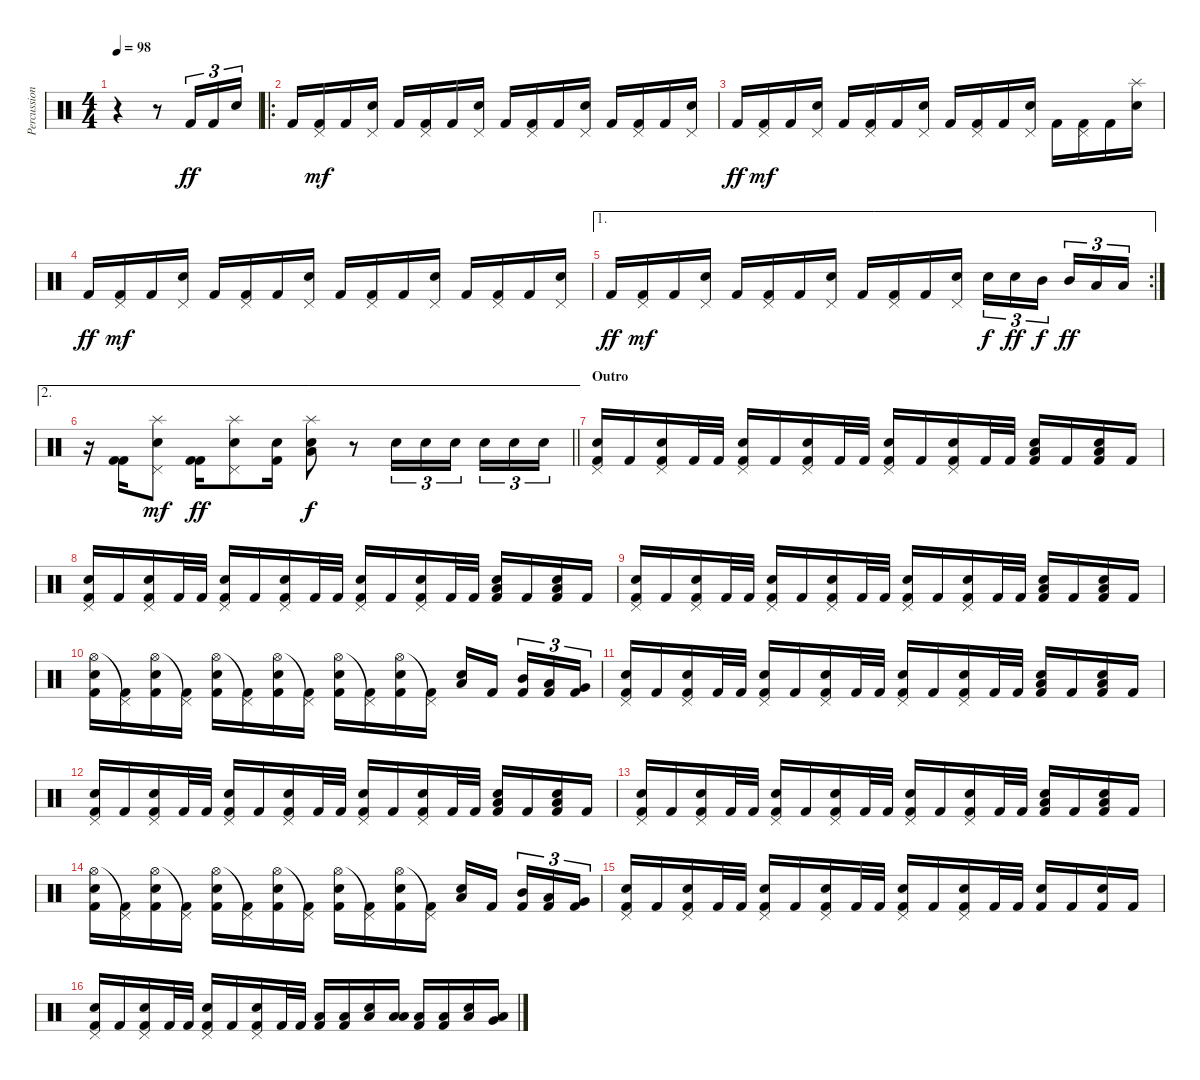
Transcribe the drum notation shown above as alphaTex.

\track ("Percussion" "Percussion") {instrument percussion}
\staff {score}
\articulation defaults
\ts (4 4)
\tempo 98
\clef neutral
\ks c
r.4{dy f} r.8 "Kick (hit) 2".16{tu (3 2) dy ff} "Kick (hit) 2".16{tu (3 2)} "Snare (hit) 2".16{tu (3 2)} |
\ro "Kick (hit) 2".16
("Pedal Hi-Hat (hit)" "Kick (hit) 2").16{dy mf} "Kick (hit) 2".16 ("Pedal Hi-Hat (hit)" "Snare (hit) 2").16 "Kick (hit) 2".16 ("Pedal Hi-Hat (hit)" "Kick (hit) 2").16 "Kick (hit) 2".16 ("Pedal Hi-Hat (hit)" "Snare (hit) 2").16 "Kick (hit) 2".16 ("Pedal Hi-Hat (hit)" "Kick (hit) 2").16 "Kick (hit) 2".16 ("Pedal Hi-Hat (hit)" "Snare (hit) 2").16 "Kick (hit) 2".16 ("Pedal Hi-Hat (hit)" "Kick (hit) 2").16 "Kick (hit) 2".16 ("Pedal Hi-Hat (hit)" "Snare (hit) 2").16 |
"Kick (hit) 2".16{dy ff} ("Pedal Hi-Hat (hit)" "Kick (hit) 2").16{dy mf} "Kick (hit) 2".16 ("Pedal Hi-Hat (hit)" "Snare (hit) 2").16 "Kick (hit) 2".16 ("Pedal Hi-Hat (hit)" "Kick (hit) 2").16 "Kick (hit) 2".16 ("Pedal Hi-Hat (hit)" "Snare (hit) 2").16 "Kick (hit) 2".16 ("Pedal Hi-Hat (hit)" "Kick (hit) 2").16 "Kick (hit) 2".16 ("Pedal Hi-Hat (hit)" "Snare (hit) 2").16 "Kick (hit) 2".16 ("Pedal Hi-Hat (hit)" "Kick (hit) 2").16 "Kick (hit) 2".16 ("Splash (hit)" "Snare (hit) 2").16 |
"Kick (hit) 2".16{dy ff} ("Pedal Hi-Hat (hit)" "Kick (hit) 2").16{dy mf} "Kick (hit) 2".16 ("Pedal Hi-Hat (hit)" "Snare (hit) 2").16 "Kick (hit) 2".16 ("Pedal Hi-Hat (hit)" "Kick (hit) 2").16 "Kick (hit) 2".16 ("Pedal Hi-Hat (hit)" "Snare (hit) 2").16 "Kick (hit) 2".16 ("Pedal Hi-Hat (hit)" "Kick (hit) 2").16 "Kick (hit) 2".16 ("Pedal Hi-Hat (hit)" "Snare (hit) 2").16 "Kick (hit) 2".16 ("Pedal Hi-Hat (hit)" "Kick (hit) 2").16 "Kick (hit) 2".16 ("Pedal Hi-Hat (hit)" "Snare (hit) 2").16 |
\ae 1
\rc 2 "Kick (hit) 2".16{dy ff}
("Pedal Hi-Hat (hit)" "Kick (hit) 2").16{dy mf} "Kick (hit) 2".16 ("Pedal Hi-Hat (hit)" "Snare (hit) 2").16 "Kick (hit) 2".16 ("Pedal Hi-Hat (hit)" "Kick (hit) 2").16 "Kick (hit) 2".16 ("Pedal Hi-Hat (hit)" "Snare (hit) 2").16 "Kick (hit) 2".16 ("Pedal Hi-Hat (hit)" "Kick (hit) 2").16 "Kick (hit) 2".16 ("Pedal Hi-Hat (hit)" "Snare (hit) 2").16 "Snare (hit) 2".16{tu (3 2) dy f} "Snare (hit) 2".16{tu (3 2) dy ff} "Mid Tom (hit)".16{tu (3 2) dy f beam splitsecondary} "Mid Tom (hit)".16{tu (3 2) dy ff} "Low Tom (hit)".16{tu (3 2)} "Low Tom (hit)".16{tu (3 2)} |
\ae 2
\barLineRight lightlight
r.16 ("Kick (hit) 2" "Kick (hit) 2").16 ("Splash (hit)" "Pedal Hi-Hat (hit)" "Snare (hit) 2").8{dy mf} ("Kick (hit) 2" "Kick (hit) 2").16{dy ff} ("Splash (hit)" "Pedal Hi-Hat (hit)" "Snare (hit) 2").8 ("Kick (hit) 2" "Snare (hit) 2").16 ("Splash (hit)" "Low Floor Tom (hit)" "Snare (hit) 2").8{dy f} r.8 "Snare (hit) 2".16{tu (3 2)} "Snare (hit) 2".16{tu (3 2)} "Snare (hit) 2".16{tu (3 2) beam splitsecondary} "Snare (hit) 2".16{tu (3 2)} "Snare (hit) 2".16{tu (3 2)} "Snare (hit) 2".16{tu (3 2)} |
\section ("" "Outro")
("Pedal Hi-Hat (hit)" "Snare (hit) 2" "Kick (hit) 2").16 "Kick (hit) 2".16 ("Pedal Hi-Hat (hit)" "Snare (hit) 2" "Kick (hit) 2").16 "Kick (hit) 2".32 "Kick (hit) 2".32 ("Pedal Hi-Hat (hit)" "Snare (hit) 2" "Kick (hit) 2").16 "Kick (hit) 2".16 ("Pedal Hi-Hat (hit)" "Snare (hit) 2" "Kick (hit) 2").16 "Kick (hit) 2".32 "Kick (hit) 2".32 ("Pedal Hi-Hat (hit)" "Snare (hit) 2" "Kick (hit) 2").16 "Kick (hit) 2".16 ("Pedal Hi-Hat (hit)" "Snare (hit) 2" "Kick (hit) 2").16 "Kick (hit) 2".32 "Kick (hit) 2".32 ("Low Tom (hit)" "Snare (hit) 2" "Kick (hit) 2").16 "Kick (hit) 2".16 ("Low Tom (hit)" "Snare (hit) 2" "Kick (hit) 2").16 "Kick (hit) 2".16 |
("Pedal Hi-Hat (hit)" "Snare (hit) 2" "Kick (hit) 2").16 "Kick (hit) 2".16 ("Pedal Hi-Hat (hit)" "Snare (hit) 2" "Kick (hit) 2").16 "Kick (hit) 2".32 "Kick (hit) 2".32 ("Pedal Hi-Hat (hit)" "Snare (hit) 2" "Kick (hit) 2").16 "Kick (hit) 2".16 ("Pedal Hi-Hat (hit)" "Snare (hit) 2" "Kick (hit) 2").16 "Kick (hit) 2".32 "Kick (hit) 2".32 ("Pedal Hi-Hat (hit)" "Snare (hit) 2" "Kick (hit) 2").16 "Kick (hit) 2".16 ("Pedal Hi-Hat (hit)" "Snare (hit) 2" "Kick (hit) 2").16 "Kick (hit) 2".32 "Kick (hit) 2".32 ("Low Tom (hit)" "Snare (hit) 2" "Kick (hit) 2").16 "Kick (hit) 2".16 ("Low Tom (hit)" "Snare (hit) 2" "Kick (hit) 2").16 "Kick (hit) 2".16 |
("Pedal Hi-Hat (hit)" "Snare (hit) 2" "Kick (hit) 2").16 "Kick (hit) 2".16 ("Pedal Hi-Hat (hit)" "Snare (hit) 2" "Kick (hit) 2").16 "Kick (hit) 2".32 "Kick (hit) 2".32 ("Pedal Hi-Hat (hit)" "Snare (hit) 2" "Kick (hit) 2").16 "Kick (hit) 2".16 ("Pedal Hi-Hat (hit)" "Snare (hit) 2" "Kick (hit) 2").16 "Kick (hit) 2".32 "Kick (hit) 2".32 ("Pedal Hi-Hat (hit)" "Snare (hit) 2" "Kick (hit) 2").16 "Kick (hit) 2".16 ("Pedal Hi-Hat (hit)" "Snare (hit) 2" "Kick (hit) 2").16 "Kick (hit) 2".32 "Kick (hit) 2".32 ("Low Tom (hit)" "Snare (hit) 2" "Kick (hit) 2").16 "Kick (hit) 2".16 ("Low Tom (hit)" "Snare (hit) 2" "Kick (hit) 2").16 "Kick (hit) 2".16 |
("Hi-Hat (open)" "Snare (hit) 2" "Kick (hit) 2").16 ("Pedal Hi-Hat (hit)"{t} "Kick (hit) 2").16 ("Hi-Hat (open)" "Snare (hit) 2" "Kick (hit) 2").16 ("Pedal Hi-Hat (hit)"{t} "Kick (hit) 2").16 ("Hi-Hat (open)" "Snare (hit) 2" "Kick (hit) 2").16 ("Pedal Hi-Hat (hit)"{t} "Kick (hit) 2").16 ("Hi-Hat (open)" "Snare (hit) 2" "Kick (hit) 2").16 ("Pedal Hi-Hat (hit)"{t} "Kick (hit) 2").16 ("Hi-Hat (open)" "Snare (hit) 2" "Kick (hit) 2").16 ("Pedal Hi-Hat (hit)"{t} "Kick (hit) 2").16 ("Hi-Hat (open)" "Snare (hit) 2" "Kick (hit) 2").16 ("Pedal Hi-Hat (hit)"{t} "Kick (hit) 2").16 ("Low Floor Tom (hit)" "Snare (hit) 2").16 "Kick (hit) 2".16{beam splitsecondary} ("Mid Tom (hit)" "Kick (hit) 2").16{tu (3 2)} ("Low Tom (hit)" "Kick (hit) 2").16{tu (3 2)} ("Very Low Tom (hit)" "Kick (hit) 2").16{tu (3 2)} |
("Pedal Hi-Hat (hit)" "Snare (hit) 2" "Kick (hit) 2").16 "Kick (hit) 2".16 ("Pedal Hi-Hat (hit)" "Snare (hit) 2" "Kick (hit) 2").16 "Kick (hit) 2".32 "Kick (hit) 2".32 ("Pedal Hi-Hat (hit)" "Snare (hit) 2" "Kick (hit) 2").16 "Kick (hit) 2".16 ("Pedal Hi-Hat (hit)" "Snare (hit) 2" "Kick (hit) 2").16 "Kick (hit) 2".32 "Kick (hit) 2".32 ("Pedal Hi-Hat (hit)" "Snare (hit) 2" "Kick (hit) 2").16 "Kick (hit) 2".16 ("Pedal Hi-Hat (hit)" "Snare (hit) 2" "Kick (hit) 2").16 "Kick (hit) 2".32 "Kick (hit) 2".32 ("Low Tom (hit)" "Snare (hit) 2" "Kick (hit) 2").16 "Kick (hit) 2".16 ("Low Tom (hit)" "Snare (hit) 2" "Kick (hit) 2").16 "Kick (hit) 2".16 |
("Pedal Hi-Hat (hit)" "Snare (hit) 2" "Kick (hit) 2").16 "Kick (hit) 2".16 ("Pedal Hi-Hat (hit)" "Snare (hit) 2" "Kick (hit) 2").16 "Kick (hit) 2".32 "Kick (hit) 2".32 ("Pedal Hi-Hat (hit)" "Snare (hit) 2" "Kick (hit) 2").16 "Kick (hit) 2".16 ("Pedal Hi-Hat (hit)" "Snare (hit) 2" "Kick (hit) 2").16 "Kick (hit) 2".32 "Kick (hit) 2".32 ("Pedal Hi-Hat (hit)" "Snare (hit) 2" "Kick (hit) 2").16 "Kick (hit) 2".16 ("Pedal Hi-Hat (hit)" "Snare (hit) 2" "Kick (hit) 2").16 "Kick (hit) 2".32 "Kick (hit) 2".32 ("Low Tom (hit)" "Snare (hit) 2" "Kick (hit) 2").16 "Kick (hit) 2".16 ("Low Tom (hit)" "Snare (hit) 2" "Kick (hit) 2").16 "Kick (hit) 2".16 |
("Pedal Hi-Hat (hit)" "Snare (hit) 2" "Kick (hit) 2").16 "Kick (hit) 2".16 ("Pedal Hi-Hat (hit)" "Snare (hit) 2" "Kick (hit) 2").16 "Kick (hit) 2".32 "Kick (hit) 2".32 ("Pedal Hi-Hat (hit)" "Snare (hit) 2" "Kick (hit) 2").16 "Kick (hit) 2".16 ("Pedal Hi-Hat (hit)" "Snare (hit) 2" "Kick (hit) 2").16 "Kick (hit) 2".32 "Kick (hit) 2".32 ("Pedal Hi-Hat (hit)" "Snare (hit) 2" "Kick (hit) 2").16 "Kick (hit) 2".16 ("Pedal Hi-Hat (hit)" "Snare (hit) 2" "Kick (hit) 2").16 "Kick (hit) 2".32 "Kick (hit) 2".32 ("Low Tom (hit)" "Snare (hit) 2" "Kick (hit) 2").16 "Kick (hit) 2".16 ("Low Tom (hit)" "Snare (hit) 2" "Kick (hit) 2").16 "Kick (hit) 2".16 |
("Hi-Hat (open)" "Snare (hit) 2" "Kick (hit) 2").16 ("Pedal Hi-Hat (hit)"{t} "Kick (hit) 2").16 ("Hi-Hat (open)" "Snare (hit) 2" "Kick (hit) 2").16 ("Pedal Hi-Hat (hit)"{t} "Kick (hit) 2").16 ("Hi-Hat (open)" "Snare (hit) 2" "Kick (hit) 2").16 ("Pedal Hi-Hat (hit)"{t} "Kick (hit) 2").16 ("Hi-Hat (open)" "Snare (hit) 2" "Kick (hit) 2").16 ("Pedal Hi-Hat (hit)"{t} "Kick (hit) 2").16 ("Hi-Hat (open)" "Snare (hit) 2" "Kick (hit) 2").16 ("Pedal Hi-Hat (hit)"{t} "Kick (hit) 2").16 ("Hi-Hat (open)" "Snare (hit) 2" "Kick (hit) 2").16 ("Pedal Hi-Hat (hit)"{t} "Kick (hit) 2").16 ("Low Floor Tom (hit)" "Snare (hit) 2").16 "Kick (hit) 2".16{beam splitsecondary} ("Mid Tom (hit)" "Kick (hit) 2").16{tu (3 2)} ("Low Tom (hit)" "Kick (hit) 2").16{tu (3 2)} ("Very Low Tom (hit)" "Kick (hit) 2").16{tu (3 2)} |
("Pedal Hi-Hat (hit)" "Snare (hit) 2" "Kick (hit) 2").16 "Kick (hit) 2".16 ("Pedal Hi-Hat (hit)" "Snare (hit) 2" "Kick (hit) 2").16 "Kick (hit) 2".32 "Kick (hit) 2".32 ("Pedal Hi-Hat (hit)" "Snare (hit) 2" "Kick (hit) 2").16 "Kick (hit) 2".16 ("Pedal Hi-Hat (hit)" "Snare (hit) 2" "Kick (hit) 2").16 "Kick (hit) 2".32 "Kick (hit) 2".32 ("Pedal Hi-Hat (hit)" "Snare (hit) 2" "Kick (hit) 2").16 "Kick (hit) 2".16 ("Pedal Hi-Hat (hit)" "Snare (hit) 2" "Kick (hit) 2").16 "Kick (hit) 2".32 "Kick (hit) 2".32 ("Snare (hit) 2" "Kick (hit) 2").16 "Kick (hit) 2".16 ("Snare (hit) 2" "Kick (hit) 2").16 "Kick (hit) 2".16 |
("Pedal Hi-Hat (hit)" "Snare (hit) 2" "Kick (hit) 2").16 "Kick (hit) 2".16 ("Pedal Hi-Hat (hit)" "Snare (hit) 2" "Kick (hit) 2").16 "Kick (hit) 2".32 "Kick (hit) 2".32 ("Pedal Hi-Hat (hit)" "Snare (hit) 2" "Kick (hit) 2").16 "Kick (hit) 2".16 ("Pedal Hi-Hat (hit)" "Snare (hit) 2" "Kick (hit) 2").16 "Kick (hit) 2".32 "Kick (hit) 2".32 ("Low Floor Tom (hit)" "Kick (hit) 2").16 ("Low Floor Tom (hit)" "Kick (hit) 2").16 ("Snare (hit) 2" "Low Floor Tom (hit)").16 ("Low Tom (hit)" "Low Floor Tom (hit)").16 ("Low Floor Tom (hit)" "Kick (hit) 2").16 ("Low Floor Tom (hit)" "Kick (hit) 2").16 ("Snare (hit) 2" "Low Floor Tom (hit)").16 ("Very Low Tom (hit)" "Low Floor Tom (hit)").16
